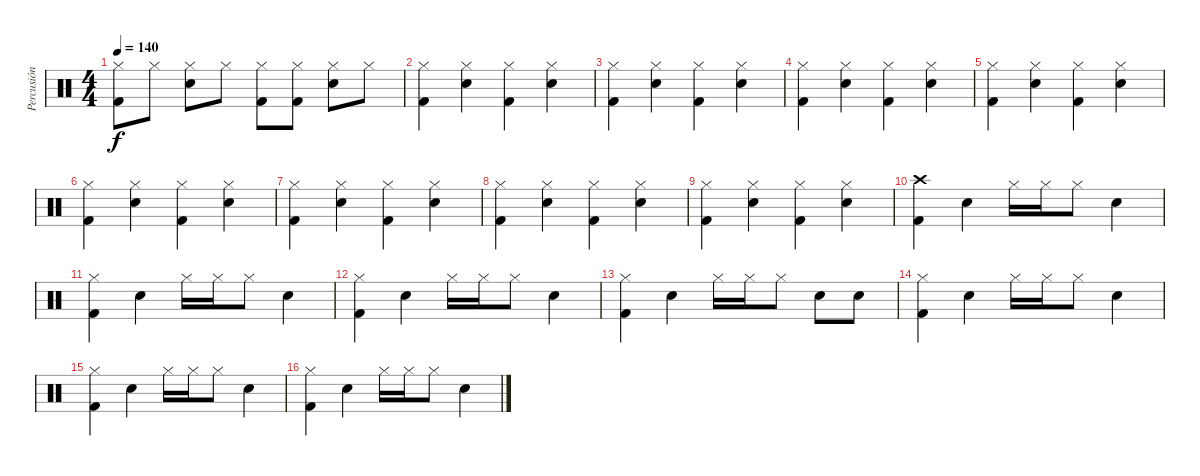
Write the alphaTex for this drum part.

\track ("Percusión" "Percusión") {instrument percussion}
\staff {score}
\articulation defaults
\ts (4 4)
\tempo 140
\clef neutral
\ks c
("Hi-Hat (closed)" "Kick (hit) 2").8{dy f} "Hi-Hat (closed)".8 ("Hi-Hat (closed)" "Snare (hit) 2").8 "Hi-Hat (closed)".8 ("Hi-Hat (closed)" "Kick (hit) 2").8 ("Hi-Hat (closed)" "Kick (hit) 2").8 ("Hi-Hat (closed)" "Snare (hit) 2").8 "Hi-Hat (closed)".8 |
("Hi-Hat (closed)" "Kick (hit) 2").4 ("Hi-Hat (closed)" "Snare (hit) 2").4 ("Hi-Hat (closed)" "Kick (hit) 2").4 ("Hi-Hat (closed)" "Snare (hit) 2").4 |
("Hi-Hat (closed)" "Kick (hit) 2").4 ("Hi-Hat (closed)" "Snare (hit) 2").4 ("Hi-Hat (closed)" "Kick (hit) 2").4 ("Hi-Hat (closed)" "Snare (hit) 2").4 |
("Hi-Hat (closed)" "Kick (hit) 2").4 ("Hi-Hat (closed)" "Snare (hit) 2").4 ("Hi-Hat (closed)" "Kick (hit) 2").4 ("Hi-Hat (closed)" "Snare (hit) 2").4 |
("Hi-Hat (closed)" "Kick (hit) 2").4 ("Hi-Hat (closed)" "Snare (hit) 2").4 ("Hi-Hat (closed)" "Kick (hit) 2").4 ("Hi-Hat (closed)" "Snare (hit) 2").4 |
("Hi-Hat (closed)" "Kick (hit) 2").4 ("Hi-Hat (closed)" "Snare (hit) 2").4 ("Hi-Hat (closed)" "Kick (hit) 2").4 ("Hi-Hat (closed)" "Snare (hit) 2").4 |
("Hi-Hat (closed)" "Kick (hit) 2").4 ("Hi-Hat (closed)" "Snare (hit) 2").4 ("Hi-Hat (closed)" "Kick (hit) 2").4 ("Hi-Hat (closed)" "Snare (hit) 2").4 |
("Hi-Hat (closed)" "Kick (hit) 2").4 ("Hi-Hat (closed)" "Snare (hit) 2").4 ("Hi-Hat (closed)" "Kick (hit) 2").4 ("Hi-Hat (closed)" "Snare (hit) 2").4 |
("Hi-Hat (closed)" "Kick (hit) 2").4 ("Hi-Hat (closed)" "Snare (hit) 2").4 ("Hi-Hat (closed)" "Kick (hit) 2").4 ("Hi-Hat (closed)" "Snare (hit) 2").4 |
("Crash high (hit)" "Kick (hit) 2").4 "Snare (hit) 2".4 "Hi-Hat (closed)".16 "Hi-Hat (closed)".16 "Hi-Hat (closed)".8 "Snare (hit) 2".4 |
("Hi-Hat (closed)" "Kick (hit) 2").4 "Snare (hit) 2".4 "Hi-Hat (closed)".16 "Hi-Hat (closed)".16 "Hi-Hat (closed)".8 "Snare (hit) 2".4 |
("Hi-Hat (closed)" "Kick (hit) 2").4 "Snare (hit) 2".4 "Hi-Hat (closed)".16 "Hi-Hat (closed)".16 "Hi-Hat (closed)".8 "Snare (hit) 2".4 |
("Hi-Hat (closed)" "Kick (hit) 2").4 "Snare (hit) 2".4 "Hi-Hat (closed)".16 "Hi-Hat (closed)".16 "Hi-Hat (closed)".8 "Snare (hit) 2".8 "Snare (hit) 2".8 |
("Hi-Hat (closed)" "Kick (hit) 2").4 "Snare (hit) 2".4 "Hi-Hat (closed)".16 "Hi-Hat (closed)".16 "Hi-Hat (closed)".8 "Snare (hit) 2".4 |
("Hi-Hat (closed)" "Kick (hit) 2").4 "Snare (hit) 2".4 "Hi-Hat (closed)".16 "Hi-Hat (closed)".16 "Hi-Hat (closed)".8 "Snare (hit) 2".4 |
("Hi-Hat (closed)" "Kick (hit) 2").4 "Snare (hit) 2".4 "Hi-Hat (closed)".16 "Hi-Hat (closed)".16 "Hi-Hat (closed)".8 "Snare (hit) 2".4
